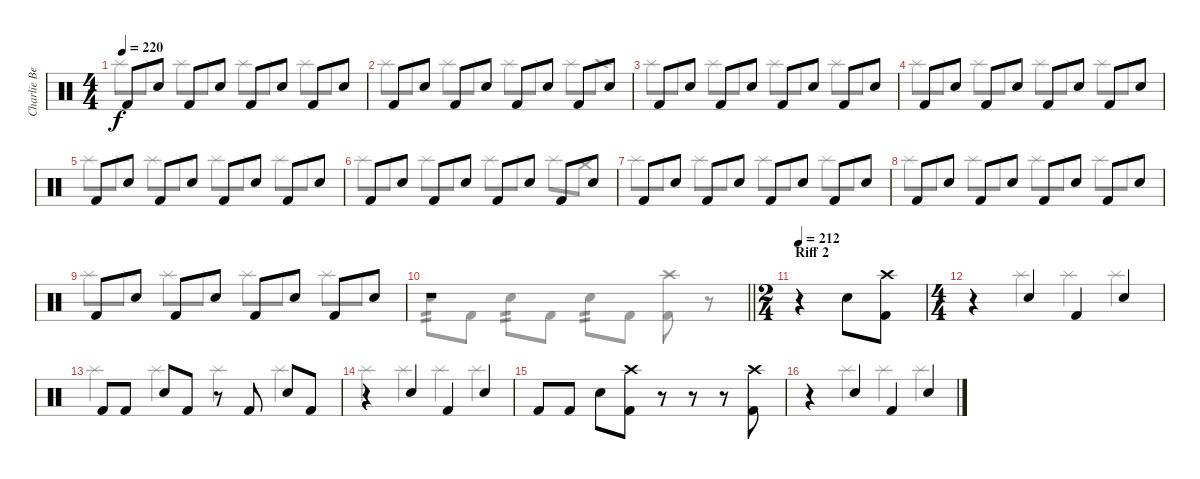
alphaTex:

\track ("Charlie Benante" "Charlie Be") {instrument percussion}
\staff {score}
\articulation defaults
\voice
\ts (4 4)
\tempo 220
\clef neutral
\ks c "Kick (hit) 2".8{dy f} "Electric Snare (hit)".8 "Kick (hit) 2".8 "Electric Snare (hit)".8 "Kick (hit) 2".8 "Electric Snare (hit)".8 "Kick (hit) 2".8 "Electric Snare (hit)".8
|
"Kick (hit) 2".8 "Electric Snare (hit)".8 "Kick (hit) 2".8 "Electric Snare (hit)".8 "Kick (hit) 2".8 "Electric Snare (hit)".8 "Kick (hit) 2".8 "Electric Snare (hit)".8 |
"Kick (hit) 2".8 "Electric Snare (hit)".8 "Kick (hit) 2".8 "Electric Snare (hit)".8 "Kick (hit) 2".8 "Electric Snare (hit)".8 "Kick (hit) 2".8 "Electric Snare (hit)".8 |
"Kick (hit) 2".8 "Electric Snare (hit)".8 "Kick (hit) 2".8 "Electric Snare (hit)".8 "Kick (hit) 2".8 "Electric Snare (hit)".8 "Kick (hit) 2".8 "Electric Snare (hit)".8 |
"Kick (hit) 2".8 "Electric Snare (hit)".8 "Kick (hit) 2".8 "Electric Snare (hit)".8 "Kick (hit) 2".8 "Electric Snare (hit)".8 "Kick (hit) 2".8 "Electric Snare (hit)".8 |
"Kick (hit) 2".8 "Electric Snare (hit)".8 "Kick (hit) 2".8 "Electric Snare (hit)".8 "Kick (hit) 2".8 "Electric Snare (hit)".8 "Kick (hit) 2".8 "Electric Snare (hit)".8 |
"Kick (hit) 2".8 "Electric Snare (hit)".8 "Kick (hit) 2".8 "Electric Snare (hit)".8 "Kick (hit) 2".8 "Electric Snare (hit)".8 "Kick (hit) 2".8 "Electric Snare (hit)".8 |
"Kick (hit) 2".8 "Electric Snare (hit)".8 "Kick (hit) 2".8 "Electric Snare (hit)".8 "Kick (hit) 2".8 "Electric Snare (hit)".8 "Kick (hit) 2".8 "Electric Snare (hit)".8 |
"Kick (hit) 2".8 "Electric Snare (hit)".8 "Kick (hit) 2".8 "Electric Snare (hit)".8 "Kick (hit) 2".8 "Electric Snare (hit)".8 "Kick (hit) 2".8 "Electric Snare (hit)".8 |
\barLineRight lightlight
r.1 |
\ts (2 4)
\section ("" "Riff 2")
\tempo 212
r.4 "Electric Snare (hit)".8 ("Crash high (hit)" "Kick (hit) 2").8 |
\ts (4 4)
r.4 "Electric Snare (hit)".4 "Kick (hit) 2".4 "Electric Snare (hit)".4 |
"Kick (hit) 2".8 "Kick (hit) 2".8 "Electric Snare (hit)".8 "Kick (hit) 2".8 r.8 "Kick (hit) 2".8 "Electric Snare (hit)".8 "Kick (hit) 2".8 |
r.4 "Electric Snare (hit)".4 "Kick (hit) 2".4 "Electric Snare (hit)".4 |
"Kick (hit) 2".8 "Kick (hit) 2".8 "Electric Snare (hit)".8 ("Crash high (hit)" "Kick (hit) 2").8 r.8 r.8 r.8 ("Crash high (hit)" "Kick (hit) 2").8 |
r.4 "Electric Snare (hit)".4 "Kick (hit) 2".4 "Electric Snare (hit)".4
\voice
\clef neutral
\ottava regular
\simile none
\ks c "Splash (hit)".8{dy f} "Splash (hit)".8 "Splash (hit)".8 "Splash (hit)".8 "Splash (hit)".8 "Splash (hit)".8 "Splash (hit)".8 "Splash (hit)".8
|
"Splash (hit)".8 "Splash (hit)".8 "Splash (hit)".8 "Splash (hit)".8 "Splash (hit)".8 "Splash (hit)".8 "Splash (hit)".8 "Crash high (hit)".8 |
"Splash (hit)".8 "Splash (hit)".8 "Splash (hit)".8 "Splash (hit)".8 "Splash (hit)".8 "Splash (hit)".8 "Splash (hit)".8 "Splash (hit)".8 |
"Splash (hit)".8 "Splash (hit)".8 "Splash (hit)".8 "Splash (hit)".8 "Splash (hit)".8 "Splash (hit)".8 "Splash (hit)".8 "Splash (hit)".8 |
"Splash (hit)".8 "Splash (hit)".8 "Splash (hit)".8 "Splash (hit)".8 "Splash (hit)".8 "Splash (hit)".8 "Splash (hit)".8 "Splash (hit)".8 |
"Splash (hit)".8 "Splash (hit)".8 "Splash (hit)".8 "Splash (hit)".8 "Splash (hit)".8 "Splash (hit)".8 "Splash (hit)".8 "Crash medium (hit)".8 |
"Splash (hit)".8 "Splash (hit)".8 "Splash (hit)".8 "Splash (hit)".8 "Splash (hit)".8 "Splash (hit)".8 "Splash (hit)".8 "Splash (hit)".8 |
"Splash (hit)".8 "Splash (hit)".8 "Splash (hit)".8 "Splash (hit)".8 "Splash (hit)".8 "Splash (hit)".8 "Splash (hit)".8 "Splash (hit)".8 |
"Splash (hit)".8 "Splash (hit)".8 "Splash (hit)".8 "Splash (hit)".8 "Splash (hit)".8 "Splash (hit)".8 "Splash (hit)".8 "Splash (hit)".8 |
\barLineRight lightlight "Electric Snare (hit)".8{tp 2} "Kick (hit) 2".8 "Electric Snare (hit)".8{tp 2} "Kick (hit) 2".8 "Electric Snare (hit)".8{tp 2} "Kick (hit) 2".8
("Crash high (hit)" "Kick (hit) 2").8 r.8 |
|
r.4 "Splash (hit)".4 "Splash (hit)".4 "Splash (hit)".4 |
"Splash (hit)".4 "Splash (hit)".4 "Splash (hit)".4 "Splash (hit)".4 |
"Splash (hit)".4 "Splash (hit)".4 "Splash (hit)".4 "Splash (hit)".4 |
|
r.4 "Splash (hit)".4 "Splash (hit)".4 "Splash (hit)".4
